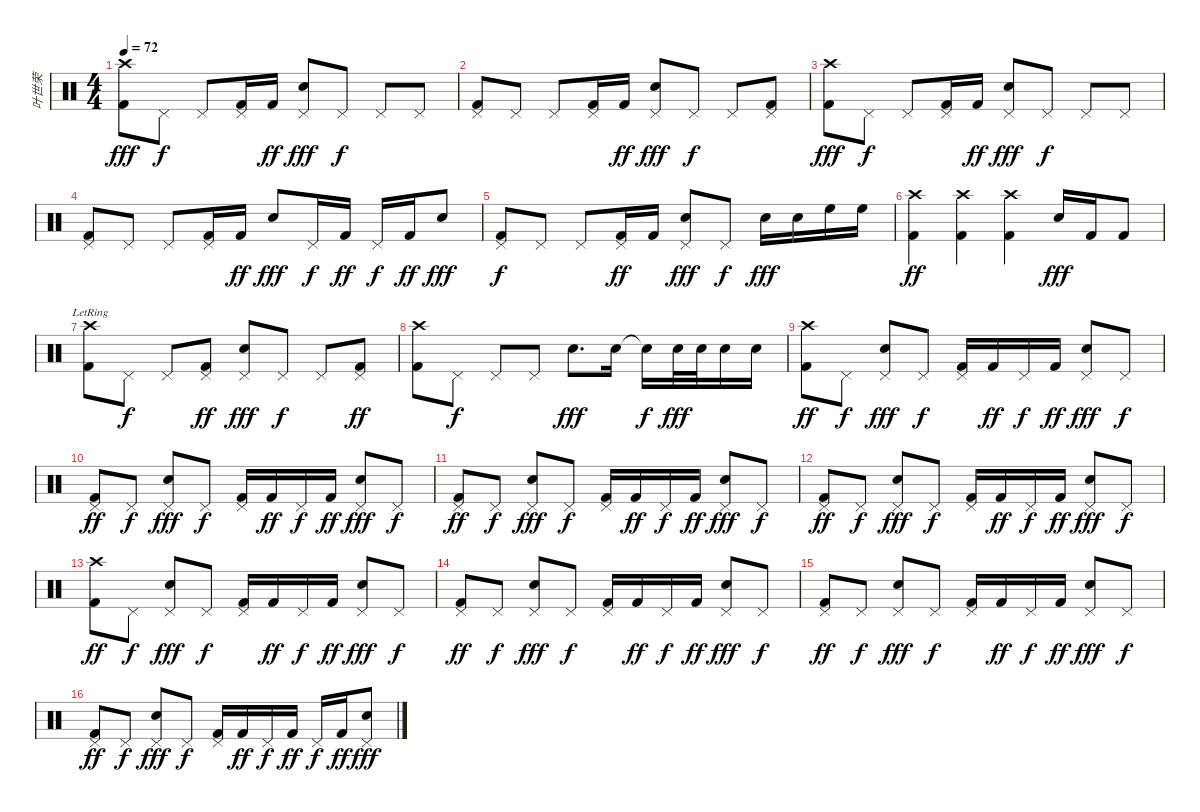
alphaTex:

\track ("叶世荣" "叶世荣") {instrument percussion}
\staff {score}
\articulation defaults
\ts (4 4)
\tempo 72
\clef neutral
\ks c
("Crash high (hit)" "Kick (hit) 2").8{dy fff} "Pedal Hi-Hat (hit)".8{dy f} "Pedal Hi-Hat (hit)".8 ("Pedal Hi-Hat (hit)" "Kick (hit) 2").16 "Kick (hit) 2".16{dy ff} ("Pedal Hi-Hat (hit)" "Electric Snare (hit)").8{dy fff} "Pedal Hi-Hat (hit)".8{dy f} "Pedal Hi-Hat (hit)".8 "Pedal Hi-Hat (hit)".8 |
("Pedal Hi-Hat (hit)" "Kick (hit) 2").8 "Pedal Hi-Hat (hit)".8 "Pedal Hi-Hat (hit)".8 ("Pedal Hi-Hat (hit)" "Kick (hit) 2").16 "Kick (hit) 2".16{dy ff} ("Pedal Hi-Hat (hit)" "Electric Snare (hit)").8{dy fff} "Pedal Hi-Hat (hit)".8{dy f} "Pedal Hi-Hat (hit)".8 ("Pedal Hi-Hat (hit)" "Kick (hit) 2").8 |
("Crash high (hit)" "Kick (hit) 2").8{dy fff} "Pedal Hi-Hat (hit)".8{dy f} "Pedal Hi-Hat (hit)".8 ("Pedal Hi-Hat (hit)" "Kick (hit) 2").16 "Kick (hit) 2".16{dy ff} ("Pedal Hi-Hat (hit)" "Electric Snare (hit)").8{dy fff} "Pedal Hi-Hat (hit)".8{dy f} "Pedal Hi-Hat (hit)".8 "Pedal Hi-Hat (hit)".8 |
("Pedal Hi-Hat (hit)" "Kick (hit) 2").8 "Pedal Hi-Hat (hit)".8 "Pedal Hi-Hat (hit)".8 ("Pedal Hi-Hat (hit)" "Kick (hit) 2").16 "Kick (hit) 2".16{dy ff} "Electric Snare (hit)".8{dy fff} "Pedal Hi-Hat (hit)".16{dy f} "Kick (hit) 2".16{dy ff} "Pedal Hi-Hat (hit)".16{dy f} "Kick (hit) 2".16{dy ff} "Electric Snare (hit)".8{dy fff} |
("Pedal Hi-Hat (hit)" "Kick (hit) 2").8{dy f} "Pedal Hi-Hat (hit)".8 "Pedal Hi-Hat (hit)".8 ("Pedal Hi-Hat (hit)" "Kick (hit) 2").16{dy ff} "Kick (hit) 2".16 ("Pedal Hi-Hat (hit)" "Electric Snare (hit)").8{dy fff} "Pedal Hi-Hat (hit)".8{dy f} "Electric Snare (hit)".16{dy fff} "Electric Snare (hit)".16 "High Floor Tom (hit)".16 "High Floor Tom (hit)".16 |
("Crash high (hit)" "Kick (hit) 2").4{dy ff} ("Crash high (hit)" "Kick (hit) 2").4 ("Crash high (hit)" "Kick (hit) 2").4 "Electric Snare (hit)".16{dy fff} "Kick (hit) 2".16 "Kick (hit) 2".8 |
("Crash high (hit)"{lr} "Kick (hit) 2").8 "Pedal Hi-Hat (hit)".8{dy f} "Pedal Hi-Hat (hit)".8 ("Pedal Hi-Hat (hit)" "Kick (hit) 2").8{dy ff} ("Pedal Hi-Hat (hit)" "Electric Snare (hit)").8{dy fff} "Pedal Hi-Hat (hit)".8{dy f} "Pedal Hi-Hat (hit)".8 ("Pedal Hi-Hat (hit)" "Kick (hit) 2").8{dy ff} |
("Crash high (hit)" "Kick (hit) 2").8 "Pedal Hi-Hat (hit)".8{dy f} "Pedal Hi-Hat (hit)".8 "Pedal Hi-Hat (hit)".8 "Electric Snare (hit)".8{d dy fff} "Electric Snare (hit)".16 "Snare (hit)"{t}.16{dy f} "Electric Snare (hit)".32{dy fff} "Electric Snare (hit)".32 "Electric Snare (hit)".16 "Electric Snare (hit)".16 |
("Crash high (hit)" "Kick (hit) 2").8{dy ff} "Pedal Hi-Hat (hit)".8{dy f} ("Pedal Hi-Hat (hit)" "Electric Snare (hit)").8{dy fff} "Pedal Hi-Hat (hit)".8{dy f} ("Pedal Hi-Hat (hit)" "Kick (hit) 2").16 "Kick (hit) 2".16{dy ff} "Pedal Hi-Hat (hit)".16{dy f} "Kick (hit) 2".16{dy ff} ("Pedal Hi-Hat (hit)" "Electric Snare (hit)").8{dy fff} "Pedal Hi-Hat (hit)".8{dy f} |
("Pedal Hi-Hat (hit)" "Kick (hit) 2").8{dy ff} "Pedal Hi-Hat (hit)".8{dy f} ("Pedal Hi-Hat (hit)" "Electric Snare (hit)").8{dy fff} "Pedal Hi-Hat (hit)".8{dy f} ("Pedal Hi-Hat (hit)" "Kick (hit) 2").16 "Kick (hit) 2".16{dy ff} "Pedal Hi-Hat (hit)".16{dy f} "Kick (hit) 2".16{dy ff} ("Pedal Hi-Hat (hit)" "Electric Snare (hit)").8{dy fff} "Pedal Hi-Hat (hit)".8{dy f} |
("Pedal Hi-Hat (hit)" "Kick (hit) 2").8{dy ff} "Pedal Hi-Hat (hit)".8{dy f} ("Pedal Hi-Hat (hit)" "Electric Snare (hit)").8{dy fff} "Pedal Hi-Hat (hit)".8{dy f} ("Pedal Hi-Hat (hit)" "Kick (hit) 2").16 "Kick (hit) 2".16{dy ff} "Pedal Hi-Hat (hit)".16{dy f} "Kick (hit) 2".16{dy ff} ("Pedal Hi-Hat (hit)" "Electric Snare (hit)").8{dy fff} "Pedal Hi-Hat (hit)".8{dy f} |
("Pedal Hi-Hat (hit)" "Kick (hit) 2").8{dy ff} "Pedal Hi-Hat (hit)".8{dy f} ("Pedal Hi-Hat (hit)" "Electric Snare (hit)").8{dy fff} "Pedal Hi-Hat (hit)".8{dy f} ("Pedal Hi-Hat (hit)" "Kick (hit) 2").16 "Kick (hit) 2".16{dy ff} "Pedal Hi-Hat (hit)".16{dy f} "Kick (hit) 2".16{dy ff} ("Pedal Hi-Hat (hit)" "Electric Snare (hit)").8{dy fff} "Pedal Hi-Hat (hit)".8{dy f} |
("Crash high (hit)" "Kick (hit) 2").8{dy ff} "Pedal Hi-Hat (hit)".8{dy f} ("Pedal Hi-Hat (hit)" "Electric Snare (hit)").8{dy fff} "Pedal Hi-Hat (hit)".8{dy f} ("Pedal Hi-Hat (hit)" "Kick (hit) 2").16 "Kick (hit) 2".16{dy ff} "Pedal Hi-Hat (hit)".16{dy f} "Kick (hit) 2".16{dy ff} ("Pedal Hi-Hat (hit)" "Electric Snare (hit)").8{dy fff} "Pedal Hi-Hat (hit)".8{dy f} |
("Pedal Hi-Hat (hit)" "Kick (hit) 2").8{dy ff} "Pedal Hi-Hat (hit)".8{dy f} ("Pedal Hi-Hat (hit)" "Electric Snare (hit)").8{dy fff} "Pedal Hi-Hat (hit)".8{dy f} ("Pedal Hi-Hat (hit)" "Kick (hit) 2").16 "Kick (hit) 2".16{dy ff} "Pedal Hi-Hat (hit)".16{dy f} "Kick (hit) 2".16{dy ff} ("Pedal Hi-Hat (hit)" "Electric Snare (hit)").8{dy fff} "Pedal Hi-Hat (hit)".8{dy f} |
("Pedal Hi-Hat (hit)" "Kick (hit) 2").8{dy ff} "Pedal Hi-Hat (hit)".8{dy f} ("Pedal Hi-Hat (hit)" "Electric Snare (hit)").8{dy fff} "Pedal Hi-Hat (hit)".8{dy f} ("Pedal Hi-Hat (hit)" "Kick (hit) 2").16 "Kick (hit) 2".16{dy ff} "Pedal Hi-Hat (hit)".16{dy f} "Kick (hit) 2".16{dy ff} ("Pedal Hi-Hat (hit)" "Electric Snare (hit)").8{dy fff} "Pedal Hi-Hat (hit)".8{dy f} |
("Pedal Hi-Hat (hit)" "Kick (hit) 2").8{dy ff} "Pedal Hi-Hat (hit)".8{dy f} ("Pedal Hi-Hat (hit)" "Electric Snare (hit)").8{dy fff} "Pedal Hi-Hat (hit)".8{dy f} ("Pedal Hi-Hat (hit)" "Kick (hit) 2").16 "Kick (hit) 2".16{dy ff} "Pedal Hi-Hat (hit)".16{dy f} "Kick (hit) 2".16{dy ff} "Pedal Hi-Hat (hit)".16{dy f} "Kick (hit) 2".16{dy ff} ("Pedal Hi-Hat (hit)" "Electric Snare (hit)").8{dy fff}
